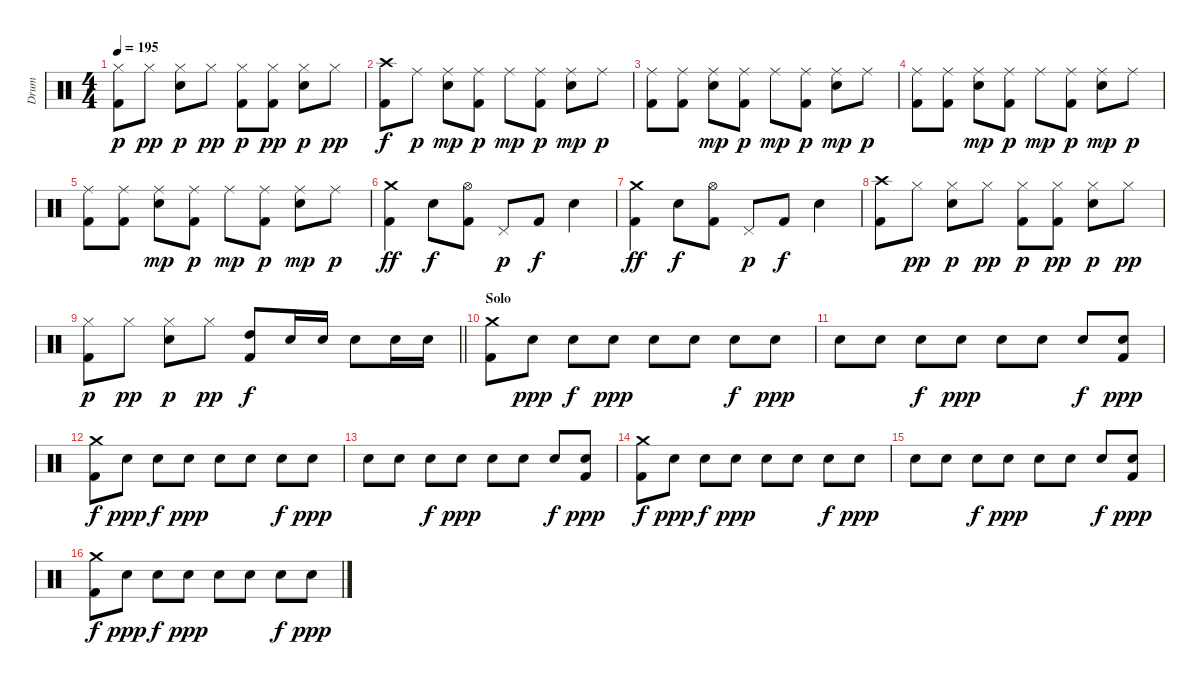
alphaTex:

\track ("Drum" "Drum") {instrument percussion}
\staff {score}
\articulation defaults
\ts (4 4)
\tempo 195
\clef neutral
\ks c
("Hi-Hat (closed)" "Kick (hit) 2").8{dy p} "Hi-Hat (closed)".8{dy pp} ("Hi-Hat (closed)" "Electric Snare (hit)").8{dy p} "Hi-Hat (closed)".8{dy pp} ("Hi-Hat (closed)" "Kick (hit) 2").8{dy p} ("Hi-Hat (closed)" "Kick (hit) 2").8{dy pp} ("Hi-Hat (closed)" "Electric Snare (hit)").8{dy p} "Hi-Hat (closed)".8{dy pp} |
("Crash high (hit)" "Kick (hit) 2").8{dy f} "Ride (middle)".8{dy p} ("Ride (middle)" "Electric Snare (hit)").8{dy mp} ("Ride (middle)" "Kick (hit) 2").8{dy p} "Ride (middle)".8{dy mp} ("Ride (middle)" "Kick (hit) 2").8{dy p} ("Ride (middle)" "Electric Snare (hit)").8{dy mp} "Ride (middle)".8{dy p} |
("Ride (middle)" "Kick (hit) 2").8 ("Ride (middle)" "Kick (hit) 2").8 ("Ride (middle)" "Electric Snare (hit)").8{dy mp} ("Ride (middle)" "Kick (hit) 2").8{dy p} "Ride (middle)".8{dy mp} ("Ride (middle)" "Kick (hit) 2").8{dy p} ("Ride (middle)" "Electric Snare (hit)").8{dy mp} "Ride (middle)".8{dy p} |
("Ride (middle)" "Kick (hit) 2").8 ("Ride (middle)" "Kick (hit) 2").8 ("Ride (middle)" "Electric Snare (hit)").8{dy mp} ("Ride (middle)" "Kick (hit) 2").8{dy p} "Ride (middle)".8{dy mp} ("Ride (middle)" "Kick (hit) 2").8{dy p} ("Ride (middle)" "Electric Snare (hit)").8{dy mp} "Ride (middle)".8{dy p} |
("Ride (middle)" "Kick (hit) 2").8 ("Ride (middle)" "Kick (hit) 2").8 ("Ride (middle)" "Electric Snare (hit)").8{dy mp} ("Ride (middle)" "Kick (hit) 2").8{dy p} "Ride (middle)".8{dy mp} ("Ride (middle)" "Kick (hit) 2").8{dy p} ("Ride (middle)" "Electric Snare (hit)").8{dy mp} "Ride (middle)".8{dy p} |
("Crash medium (hit)" "Kick (hit) 2").4{dy ff} "Electric Snare (hit)".8{dy f} ("Hi-Hat (open)" "Kick (hit) 2").8 "Pedal Hi-Hat (hit)".8{dy p} "Kick (hit) 2".8{dy f} "Electric Snare (hit)".4 |
("Crash medium (hit)" "Kick (hit) 2").4{dy ff} "Electric Snare (hit)".8{dy f} ("Hi-Hat (open)" "Kick (hit) 2").8 "Pedal Hi-Hat (hit)".8{dy p} "Kick (hit) 2".8{dy f} "Electric Snare (hit)".4 |
("Crash high (hit)" "Kick (hit) 2").8 "Hi-Hat (closed)".8{dy pp} ("Hi-Hat (closed)" "Electric Snare (hit)").8{dy p} "Hi-Hat (closed)".8{dy pp} ("Hi-Hat (closed)" "Kick (hit) 2").8{dy p} ("Hi-Hat (closed)" "Kick (hit) 2").8{dy pp} ("Hi-Hat (closed)" "Electric Snare (hit)").8{dy p} "Hi-Hat (closed)".8{dy pp} |
\barLineRight lightlight
("Hi-Hat (closed)" "Kick (hit) 2").8{dy p} "Hi-Hat (closed)".8{dy pp} ("Hi-Hat (closed)" "Electric Snare (hit)").8{dy p} "Hi-Hat (closed)".8{dy pp} ("High Tom (hit)" "Kick (hit) 2").8{dy f} "Electric Snare (hit)".16 "Electric Snare (hit)".16 "Electric Snare (hit)".8 "Electric Snare (hit)".16 "Electric Snare (hit)".16 |
\section ("" "Solo")
("Crash medium (hit)" "Kick (hit) 2").8 "Electric Snare (hit)".8{dy ppp} "Electric Snare (hit)".8{dy f} "Electric Snare (hit)".8{dy ppp} "Electric Snare (hit)".8 "Electric Snare (hit)".8 "Electric Snare (hit)".8{dy f} "Electric Snare (hit)".8{dy ppp} |
"Electric Snare (hit)".8 "Electric Snare (hit)".8 "Electric Snare (hit)".8{dy f} "Electric Snare (hit)".8{dy ppp} "Electric Snare (hit)".8 "Electric Snare (hit)".8 "Electric Snare (hit)".8{dy f} ("Electric Snare (hit)" "Kick (hit) 2").8{dy ppp} |
("Crash medium (hit)" "Kick (hit) 2").8{dy f} "Electric Snare (hit)".8{dy ppp} "Electric Snare (hit)".8{dy f} "Electric Snare (hit)".8{dy ppp} "Electric Snare (hit)".8 "Electric Snare (hit)".8 "Electric Snare (hit)".8{dy f} "Electric Snare (hit)".8{dy ppp} |
"Electric Snare (hit)".8 "Electric Snare (hit)".8 "Electric Snare (hit)".8{dy f} "Electric Snare (hit)".8{dy ppp} "Electric Snare (hit)".8 "Electric Snare (hit)".8 "Electric Snare (hit)".8{dy f} ("Electric Snare (hit)" "Kick (hit) 2").8{dy ppp} |
("Crash medium (hit)" "Kick (hit) 2").8{dy f} "Electric Snare (hit)".8{dy ppp} "Electric Snare (hit)".8{dy f} "Electric Snare (hit)".8{dy ppp} "Electric Snare (hit)".8 "Electric Snare (hit)".8 "Electric Snare (hit)".8{dy f} "Electric Snare (hit)".8{dy ppp} |
"Electric Snare (hit)".8 "Electric Snare (hit)".8 "Electric Snare (hit)".8{dy f} "Electric Snare (hit)".8{dy ppp} "Electric Snare (hit)".8 "Electric Snare (hit)".8 "Electric Snare (hit)".8{dy f} ("Electric Snare (hit)" "Kick (hit) 2").8{dy ppp} |
("Crash medium (hit)" "Kick (hit) 2").8{dy f} "Electric Snare (hit)".8{dy ppp} "Electric Snare (hit)".8{dy f} "Electric Snare (hit)".8{dy ppp} "Electric Snare (hit)".8 "Electric Snare (hit)".8 "Electric Snare (hit)".8{dy f} "Electric Snare (hit)".8{dy ppp}
